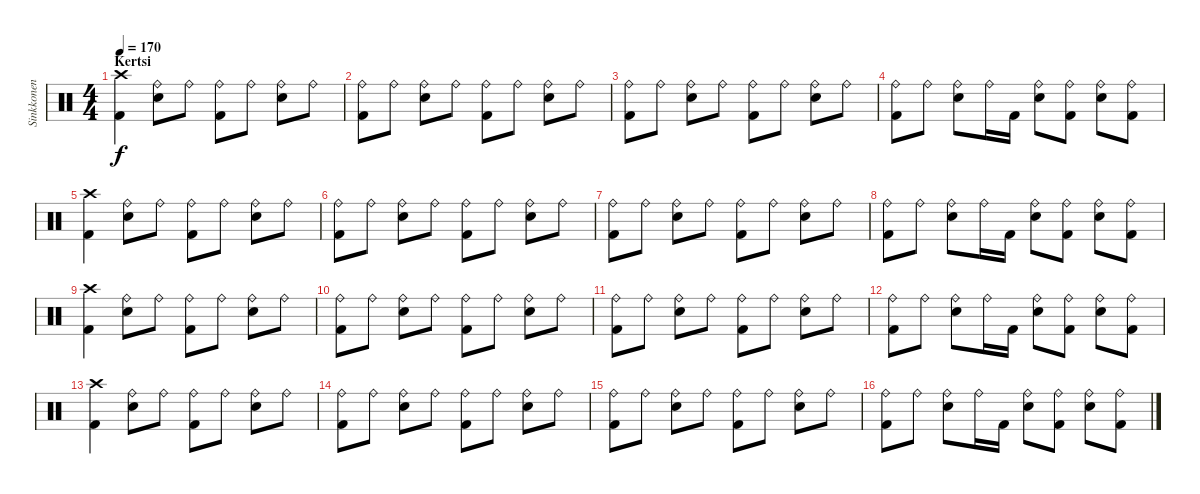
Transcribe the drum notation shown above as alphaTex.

\track ("Sinkkonen" "Sinkkonen") {instrument percussion}
\staff {score}
\articulation defaults
\ts (4 4)
\section ("" "Kertsi")
\tempo 170
\clef neutral
\ks c
("Crash high (hit)" "Kick (hit) 2").4{dy f} ("Ride (bell)" "Electric Snare (hit)").8 "Ride (bell)".8 ("Ride (bell)" "Kick (hit) 2").8 "Ride (bell)".8 ("Ride (bell)" "Electric Snare (hit)").8 "Ride (bell)".8 |
("Ride (bell)" "Kick (hit) 2").8 "Ride (bell)".8 ("Ride (bell)" "Electric Snare (hit)").8 "Ride (bell)".8 ("Ride (bell)" "Kick (hit) 2").8 "Ride (bell)".8 ("Ride (bell)" "Electric Snare (hit)").8 "Ride (bell)".8 |
("Ride (bell)" "Kick (hit) 2").8 "Ride (bell)".8 ("Ride (bell)" "Electric Snare (hit)").8 "Ride (bell)".8 ("Ride (bell)" "Kick (hit) 2").8 "Ride (bell)".8 ("Ride (bell)" "Electric Snare (hit)").8 "Ride (bell)".8 |
("Ride (bell)" "Kick (hit) 2").8 "Ride (bell)".8 ("Ride (bell)" "Electric Snare (hit)").8 "Ride (bell)".16 "Kick (hit) 2".16 ("Ride (bell)" "Electric Snare (hit)").8 ("Ride (bell)" "Kick (hit) 2").8 ("Ride (bell)" "Electric Snare (hit)").8 ("Ride (bell)" "Kick (hit) 2").8 |
("Crash high (hit)" "Kick (hit) 2").4 ("Ride (bell)" "Electric Snare (hit)").8 "Ride (bell)".8 ("Ride (bell)" "Kick (hit) 2").8 "Ride (bell)".8 ("Ride (bell)" "Electric Snare (hit)").8 "Ride (bell)".8 |
("Ride (bell)" "Kick (hit) 2").8 "Ride (bell)".8 ("Ride (bell)" "Electric Snare (hit)").8 "Ride (bell)".8 ("Ride (bell)" "Kick (hit) 2").8 "Ride (bell)".8 ("Ride (bell)" "Electric Snare (hit)").8 "Ride (bell)".8 |
("Ride (bell)" "Kick (hit) 2").8 "Ride (bell)".8 ("Ride (bell)" "Electric Snare (hit)").8 "Ride (bell)".8 ("Ride (bell)" "Kick (hit) 2").8 "Ride (bell)".8 ("Ride (bell)" "Electric Snare (hit)").8 "Ride (bell)".8 |
("Ride (bell)" "Kick (hit) 2").8 "Ride (bell)".8 ("Ride (bell)" "Electric Snare (hit)").8 "Ride (bell)".16 "Kick (hit) 2".16 ("Ride (bell)" "Electric Snare (hit)").8 ("Ride (bell)" "Kick (hit) 2").8 ("Ride (bell)" "Electric Snare (hit)").8 ("Ride (bell)" "Kick (hit) 2").8 |
("Crash high (hit)" "Kick (hit) 2").4 ("Ride (bell)" "Electric Snare (hit)").8 "Ride (bell)".8 ("Ride (bell)" "Kick (hit) 2").8 "Ride (bell)".8 ("Ride (bell)" "Electric Snare (hit)").8 "Ride (bell)".8 |
("Ride (bell)" "Kick (hit) 2").8 "Ride (bell)".8 ("Ride (bell)" "Electric Snare (hit)").8 "Ride (bell)".8 ("Ride (bell)" "Kick (hit) 2").8 "Ride (bell)".8 ("Ride (bell)" "Electric Snare (hit)").8 "Ride (bell)".8 |
("Ride (bell)" "Kick (hit) 2").8 "Ride (bell)".8 ("Ride (bell)" "Electric Snare (hit)").8 "Ride (bell)".8 ("Ride (bell)" "Kick (hit) 2").8 "Ride (bell)".8 ("Ride (bell)" "Electric Snare (hit)").8 "Ride (bell)".8 |
("Ride (bell)" "Kick (hit) 2").8 "Ride (bell)".8 ("Ride (bell)" "Electric Snare (hit)").8 "Ride (bell)".16 "Kick (hit) 2".16 ("Ride (bell)" "Electric Snare (hit)").8 ("Ride (bell)" "Kick (hit) 2").8 ("Ride (bell)" "Electric Snare (hit)").8 ("Ride (bell)" "Kick (hit) 2").8 |
("Crash high (hit)" "Kick (hit) 2").4 ("Ride (bell)" "Electric Snare (hit)").8 "Ride (bell)".8 ("Ride (bell)" "Kick (hit) 2").8 "Ride (bell)".8 ("Ride (bell)" "Electric Snare (hit)").8 "Ride (bell)".8 |
("Ride (bell)" "Kick (hit) 2").8 "Ride (bell)".8 ("Ride (bell)" "Electric Snare (hit)").8 "Ride (bell)".8 ("Ride (bell)" "Kick (hit) 2").8 "Ride (bell)".8 ("Ride (bell)" "Electric Snare (hit)").8 "Ride (bell)".8 |
("Ride (bell)" "Kick (hit) 2").8 "Ride (bell)".8 ("Ride (bell)" "Electric Snare (hit)").8 "Ride (bell)".8 ("Ride (bell)" "Kick (hit) 2").8 "Ride (bell)".8 ("Ride (bell)" "Electric Snare (hit)").8 "Ride (bell)".8 |
("Ride (bell)" "Kick (hit) 2").8 "Ride (bell)".8 ("Ride (bell)" "Electric Snare (hit)").8 "Ride (bell)".16 "Kick (hit) 2".16 ("Ride (bell)" "Electric Snare (hit)").8 ("Ride (bell)" "Kick (hit) 2").8 ("Ride (bell)" "Electric Snare (hit)").8 ("Ride (bell)" "Kick (hit) 2").8
